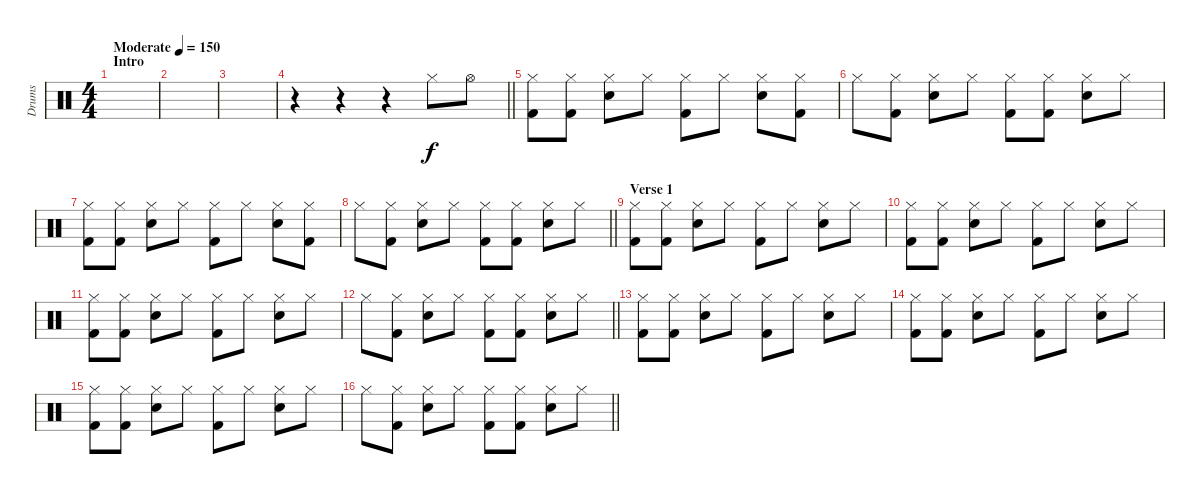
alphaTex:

\track ("Drums" "Drums") {instrument percussion}
\staff {score}
\articulation defaults
\ts (4 4)
\section ("" "Intro")
\tempo (150 "Moderate")
\clef neutral
\ks c
|
|
|
\barLineRight lightlight
r.4 r.4 r.4 "Hi-Hat (closed)".8 "Hi-Hat (open)".8 |
("Hi-Hat (closed)" "Kick (hit) 2").8 ("Hi-Hat (closed)" "Kick (hit) 2").8 ("Hi-Hat (closed)" "Snare (hit) 2").8 "Hi-Hat (closed)".8 ("Hi-Hat (closed)" "Kick (hit) 2").8 "Hi-Hat (closed)".8 ("Hi-Hat (closed)" "Snare (hit) 2").8 ("Hi-Hat (closed)" "Kick (hit) 2").8 |
"Hi-Hat (closed)".8 ("Hi-Hat (closed)" "Kick (hit) 2").8 ("Hi-Hat (closed)" "Snare (hit) 2").8 "Hi-Hat (closed)".8 ("Hi-Hat (closed)" "Kick (hit) 2").8 ("Hi-Hat (closed)" "Kick (hit) 2").8 ("Hi-Hat (closed)" "Snare (hit) 2").8 "Hi-Hat (closed)".8 |
("Hi-Hat (closed)" "Kick (hit) 2").8 ("Hi-Hat (closed)" "Kick (hit) 2").8 ("Hi-Hat (closed)" "Snare (hit) 2").8 "Hi-Hat (closed)".8 ("Hi-Hat (closed)" "Kick (hit) 2").8 "Hi-Hat (closed)".8 ("Hi-Hat (closed)" "Snare (hit) 2").8 ("Hi-Hat (closed)" "Kick (hit) 2").8 |
\barLineRight lightlight "Hi-Hat (closed)".8
("Hi-Hat (closed)" "Kick (hit) 2").8 ("Hi-Hat (closed)" "Snare (hit) 2").8 "Hi-Hat (closed)".8 ("Hi-Hat (closed)" "Kick (hit) 2").8 ("Hi-Hat (closed)" "Kick (hit) 2").8 ("Hi-Hat (closed)" "Snare (hit) 2").8 "Hi-Hat (closed)".8 |
\section ("" "Verse 1")
("Hi-Hat (closed)" "Kick (hit) 2").8 ("Hi-Hat (closed)" "Kick (hit) 2").8 ("Hi-Hat (closed)" "Snare (hit) 2").8 "Hi-Hat (closed)".8 ("Hi-Hat (closed)" "Kick (hit) 2").8 "Hi-Hat (closed)".8 ("Hi-Hat (closed)" "Snare (hit) 2").8 "Hi-Hat (closed)".8 |
("Hi-Hat (closed)" "Kick (hit) 2").8 ("Hi-Hat (closed)" "Kick (hit) 2").8 ("Hi-Hat (closed)" "Snare (hit) 2").8 "Hi-Hat (closed)".8 ("Hi-Hat (closed)" "Kick (hit) 2").8 "Hi-Hat (closed)".8 ("Hi-Hat (closed)" "Snare (hit) 2").8 "Hi-Hat (closed)".8 |
("Hi-Hat (closed)" "Kick (hit) 2").8 ("Hi-Hat (closed)" "Kick (hit) 2").8 ("Hi-Hat (closed)" "Snare (hit) 2").8 "Hi-Hat (closed)".8 ("Hi-Hat (closed)" "Kick (hit) 2").8 "Hi-Hat (closed)".8 ("Hi-Hat (closed)" "Snare (hit) 2").8 "Hi-Hat (closed)".8 |
\barLineRight lightlight "Hi-Hat (closed)".8
("Hi-Hat (closed)" "Kick (hit) 2").8 ("Hi-Hat (closed)" "Snare (hit) 2").8 "Hi-Hat (closed)".8 ("Hi-Hat (closed)" "Kick (hit) 2").8 ("Hi-Hat (closed)" "Kick (hit) 2").8 ("Hi-Hat (closed)" "Snare (hit) 2").8 "Hi-Hat (closed)".8 |
("Hi-Hat (closed)" "Kick (hit) 2").8 ("Hi-Hat (closed)" "Kick (hit) 2").8 ("Hi-Hat (closed)" "Snare (hit) 2").8 "Hi-Hat (closed)".8 ("Hi-Hat (closed)" "Kick (hit) 2").8 "Hi-Hat (closed)".8 ("Hi-Hat (closed)" "Snare (hit) 2").8 "Hi-Hat (closed)".8 |
("Hi-Hat (closed)" "Kick (hit) 2").8 ("Hi-Hat (closed)" "Kick (hit) 2").8 ("Hi-Hat (closed)" "Snare (hit) 2").8 "Hi-Hat (closed)".8 ("Hi-Hat (closed)" "Kick (hit) 2").8 "Hi-Hat (closed)".8 ("Hi-Hat (closed)" "Snare (hit) 2").8 "Hi-Hat (closed)".8 |
("Hi-Hat (closed)" "Kick (hit) 2").8 ("Hi-Hat (closed)" "Kick (hit) 2").8 ("Hi-Hat (closed)" "Snare (hit) 2").8 "Hi-Hat (closed)".8 ("Hi-Hat (closed)" "Kick (hit) 2").8 "Hi-Hat (closed)".8 ("Hi-Hat (closed)" "Snare (hit) 2").8 "Hi-Hat (closed)".8 |
\barLineRight lightlight "Hi-Hat (closed)".8
("Hi-Hat (closed)" "Kick (hit) 2").8 ("Hi-Hat (closed)" "Snare (hit) 2").8 "Hi-Hat (closed)".8 ("Hi-Hat (closed)" "Kick (hit) 2").8 ("Hi-Hat (closed)" "Kick (hit) 2").8 ("Hi-Hat (closed)" "Snare (hit) 2").8 "Hi-Hat (closed)".8
